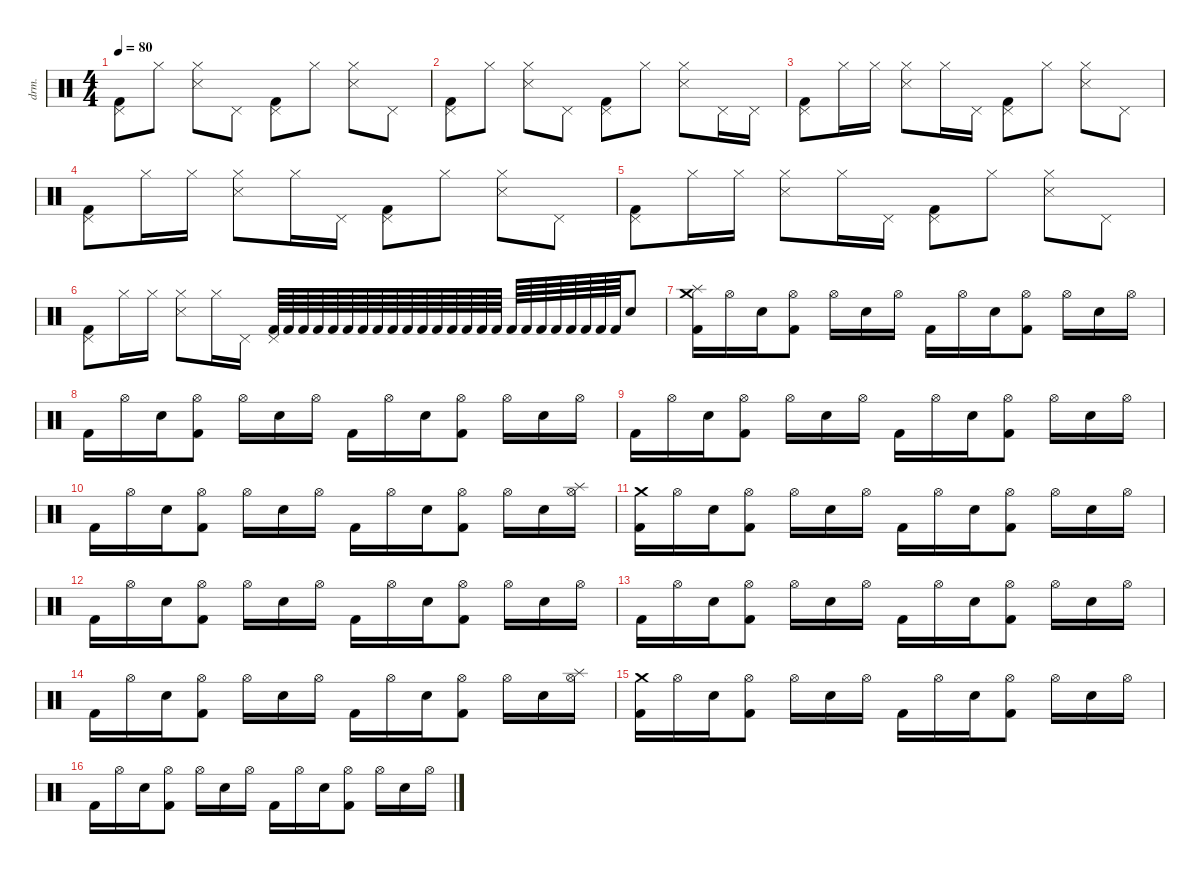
\defaultSystemsLayout 4
\hideDynamics
\bracketExtendMode nobrackets
\otherSystemsTrackNameOrientation horizontal
\track ("Percussions / Batterie" "drm.") {instrument percussion}
\staff {score}
\articulation defaults
\ts (4 4)
\tempo 80
\clef neutral
\ks c
("Pedal Hi-Hat (hit)" "Kick (hit) 2").8{dy f beam Down} "Hi-Hat (closed)".8{beam Down} ("Hi-Hat (closed)" "Snare (side stick) 3").8{beam Down} "Pedal Hi-Hat (hit)".8{beam Down} ("Pedal Hi-Hat (hit)" "Kick (hit) 2").8{beam Down} "Hi-Hat (closed)".8{beam Down} ("Hi-Hat (closed)" "Snare (side stick) 3").8{beam Down} "Pedal Hi-Hat (hit)".8{beam Down} |
("Pedal Hi-Hat (hit)" "Kick (hit) 2").8{beam Down} "Hi-Hat (closed)".8{beam Down} ("Hi-Hat (closed)" "Snare (side stick) 3").8{beam Down} "Pedal Hi-Hat (hit)".8{beam Down} ("Pedal Hi-Hat (hit)" "Kick (hit) 2").8{beam Down} "Hi-Hat (closed)".8{beam Down} ("Hi-Hat (closed)" "Snare (side stick) 3").8{beam Down} "Pedal Hi-Hat (hit)".16{beam Down} "Pedal Hi-Hat (hit)".16{beam Down} |
("Pedal Hi-Hat (hit)" "Kick (hit) 2").8{beam Down} "Hi-Hat (closed)".16{beam Down} "Hi-Hat (closed)".16{beam Down} ("Hi-Hat (closed)" "Snare (side stick) 3").8{beam Down} "Hi-Hat (closed)".16{beam Down} "Pedal Hi-Hat (hit)".16{beam Down} ("Pedal Hi-Hat (hit)" "Kick (hit) 2").8{beam Down} "Hi-Hat (closed)".8{beam Down} ("Hi-Hat (closed)" "Snare (side stick) 3").8{beam Down} "Pedal Hi-Hat (hit)".8{beam Down} |
("Pedal Hi-Hat (hit)" "Kick (hit) 2").8{beam Down} "Hi-Hat (closed)".16{beam Down} "Hi-Hat (closed)".16{beam Down} ("Hi-Hat (closed)" "Snare (side stick) 3").8{beam Down} "Hi-Hat (closed)".16{beam Down} "Pedal Hi-Hat (hit)".16{beam Down} ("Pedal Hi-Hat (hit)" "Kick (hit) 2").8{beam Down} "Hi-Hat (closed)".8{beam Down} ("Hi-Hat (closed)" "Snare (side stick) 3").8{beam Down} "Pedal Hi-Hat (hit)".8{beam Down} |
("Pedal Hi-Hat (hit)" "Kick (hit) 2").8{beam Down} "Hi-Hat (closed)".16{beam Down} "Hi-Hat (closed)".16{beam Down} ("Hi-Hat (closed)" "Snare (side stick) 3").8{beam Down} "Hi-Hat (closed)".16{beam Down} "Pedal Hi-Hat (hit)".16{beam Down} ("Pedal Hi-Hat (hit)" "Kick (hit) 2").8{beam Down} "Hi-Hat (closed)".8{beam Down} ("Hi-Hat (closed)" "Snare (side stick) 3").8{beam Down} "Pedal Hi-Hat (hit)".8{beam Down} |
("Pedal Hi-Hat (hit)" "Kick (hit) 2").8{beam Down} "Hi-Hat (closed)".16{beam Down} "Hi-Hat (closed)".16{beam Down} ("Hi-Hat (closed)" "Snare (side stick) 3").8{beam Down} "Hi-Hat (closed)".16{beam Down} "Pedal Hi-Hat (hit)".16{beam Down} ("Pedal Hi-Hat (hit)" "Kick (hit) 2").64{beam Up} "Kick (hit) 2".64{beam Up} "Kick (hit) 2".64{beam Up} "Kick (hit) 2".64{beam Up} "Kick (hit) 2".64{beam Up} "Kick (hit) 2".64{beam Up} "Kick (hit) 2".64{beam Up} "Kick (hit) 2".64{beam Up} "Kick (hit) 2".64{beam Up} "Kick (hit) 2".64{beam Up} "Kick (hit) 2".64{beam Up} "Kick (hit) 2".64{beam Up} "Kick (hit) 2".64{beam Up} "Kick (hit) 2".64{beam Up} "Kick (hit) 2".64{beam Up} "Kick (hit) 2".64{beam Up} "Kick (hit) 2".64{beam Up} "Kick (hit) 2".64{beam Up} "Kick (hit) 2".64{beam Up} "Kick (hit) 2".64{beam Up} "Kick (hit) 2".64{beam Up} "Kick (hit) 2".64{beam Up} "Kick (hit) 2".64{beam Up} "Kick (hit) 2".64{beam Up} "Snare (hit) 2".8{beam Up} |
("Splash (hit)" "Crash medium (hit)" "Kick (hit) 2").16{beam Down} "Hi-Hat (open)".16{beam Down} "Snare (hit) 2".16{beam Down} ("Hi-Hat (open)" "Kick (hit) 2").8{beam Down} "Hi-Hat (open)".16{beam Down} "Snare (hit) 2".16{beam Down} "Hi-Hat (open)".16{beam Down} "Kick (hit) 2".16{beam Down} "Hi-Hat (open)".16{beam Down} "Snare (hit) 2".16{beam Down} ("Hi-Hat (open)" "Kick (hit) 2").8{beam Down} "Hi-Hat (open)".16{beam Down} "Snare (hit) 2".16{beam Down} "Hi-Hat (open)".16{beam Down} |
"Kick (hit) 2".16{beam Down} "Hi-Hat (open)".16{beam Down} "Snare (hit) 2".16{beam Down} ("Hi-Hat (open)" "Kick (hit) 2").8{beam Down} "Hi-Hat (open)".16{beam Down} "Snare (hit) 2".16{beam Down} "Hi-Hat (open)".16{beam Down} "Kick (hit) 2".16{beam Down} "Hi-Hat (open)".16{beam Down} "Snare (hit) 2".16{beam Down} ("Hi-Hat (open)" "Kick (hit) 2").8{beam Down} "Hi-Hat (open)".16{beam Down} "Snare (hit) 2".16{beam Down} "Hi-Hat (open)".16{beam Down} |
"Kick (hit) 2".16{beam Down} "Hi-Hat (open)".16{beam Down} "Snare (hit) 2".16{beam Down} ("Hi-Hat (open)" "Kick (hit) 2").8{beam Down} "Hi-Hat (open)".16{beam Down} "Snare (hit) 2".16{beam Down} "Hi-Hat (open)".16{beam Down} "Kick (hit) 2".16{beam Down} "Hi-Hat (open)".16{beam Down} "Snare (hit) 2".16{beam Down} ("Hi-Hat (open)" "Kick (hit) 2").8{beam Down} "Hi-Hat (open)".16{beam Down} "Snare (hit) 2".16{beam Down} "Hi-Hat (open)".16{beam Down} |
"Kick (hit) 2".16{beam Down} "Hi-Hat (open)".16{beam Down} "Snare (hit) 2".16{beam Down} ("Hi-Hat (open)" "Kick (hit) 2").8{beam Down} "Hi-Hat (open)".16{beam Down} "Snare (hit) 2".16{beam Down} "Hi-Hat (open)".16{beam Down} "Kick (hit) 2".16{beam Down} "Hi-Hat (open)".16{beam Down} "Snare (hit) 2".16{beam Down} ("Hi-Hat (open)" "Kick (hit) 2").8{beam Down} "Hi-Hat (open)".16{beam Down} "Snare (hit) 2".16{beam Down} ("Splash (hit)" "Hi-Hat (open)").16{beam Down} |
("Crash medium (hit)" "Kick (hit) 2").16{beam Down} "Hi-Hat (open)".16{beam Down} "Snare (hit) 2".16{beam Down} ("Hi-Hat (open)" "Kick (hit) 2").8{beam Down} "Hi-Hat (open)".16{beam Down} "Snare (hit) 2".16{beam Down} "Hi-Hat (open)".16{beam Down} "Kick (hit) 2".16{beam Down} "Hi-Hat (open)".16{beam Down} "Snare (hit) 2".16{beam Down} ("Hi-Hat (open)" "Kick (hit) 2").8{beam Down} "Hi-Hat (open)".16{beam Down} "Snare (hit) 2".16{beam Down} "Hi-Hat (open)".16{beam Down} |
"Kick (hit) 2".16{beam Down} "Hi-Hat (open)".16{beam Down} "Snare (hit) 2".16{beam Down} ("Hi-Hat (open)" "Kick (hit) 2").8{beam Down} "Hi-Hat (open)".16{beam Down} "Snare (hit) 2".16{beam Down} "Hi-Hat (open)".16{beam Down} "Kick (hit) 2".16{beam Down} "Hi-Hat (open)".16{beam Down} "Snare (hit) 2".16{beam Down} ("Hi-Hat (open)" "Kick (hit) 2").8{beam Down} "Hi-Hat (open)".16{beam Down} "Snare (hit) 2".16{beam Down} "Hi-Hat (open)".16{beam Down} |
"Kick (hit) 2".16{beam Down} "Hi-Hat (open)".16{beam Down} "Snare (hit) 2".16{beam Down} ("Hi-Hat (open)" "Kick (hit) 2").8{beam Down} "Hi-Hat (open)".16{beam Down} "Snare (hit) 2".16{beam Down} "Hi-Hat (open)".16{beam Down} "Kick (hit) 2".16{beam Down} "Hi-Hat (open)".16{beam Down} "Snare (hit) 2".16{beam Down} ("Hi-Hat (open)" "Kick (hit) 2").8{beam Down} "Hi-Hat (open)".16{beam Down} "Snare (hit) 2".16{beam Down} "Hi-Hat (open)".16{beam Down} |
"Kick (hit) 2".16{beam Down} "Hi-Hat (open)".16{beam Down} "Snare (hit) 2".16{beam Down} ("Hi-Hat (open)" "Kick (hit) 2").8{beam Down} "Hi-Hat (open)".16{beam Down} "Snare (hit) 2".16{beam Down} "Hi-Hat (open)".16{beam Down} "Kick (hit) 2".16{beam Down} "Hi-Hat (open)".16{beam Down} "Snare (hit) 2".16{beam Down} ("Hi-Hat (open)" "Kick (hit) 2").8{beam Down} "Hi-Hat (open)".16{beam Down} "Snare (hit) 2".16{beam Down} ("Splash (hit)" "Hi-Hat (open)").16{beam Down} |
("Crash medium (hit)" "Kick (hit) 2").16{beam Down} "Hi-Hat (open)".16{beam Down} "Snare (hit) 2".16{beam Down} ("Hi-Hat (open)" "Kick (hit) 2").8{beam Down} "Hi-Hat (open)".16{beam Down} "Snare (hit) 2".16{beam Down} "Hi-Hat (open)".16{beam Down} "Kick (hit) 2".16{beam Down} "Hi-Hat (open)".16{beam Down} "Snare (hit) 2".16{beam Down} ("Hi-Hat (open)" "Kick (hit) 2").8{beam Down} "Hi-Hat (open)".16{beam Down} "Snare (hit) 2".16{beam Down} "Hi-Hat (open)".16{beam Down} |
"Kick (hit) 2".16{beam Down} "Hi-Hat (open)".16{beam Down} "Snare (hit) 2".16{beam Down} ("Hi-Hat (open)" "Kick (hit) 2").8{beam Down} "Hi-Hat (open)".16{beam Down} "Snare (hit) 2".16{beam Down} "Hi-Hat (open)".16{beam Down} "Kick (hit) 2".16{beam Down} "Hi-Hat (open)".16{beam Down} "Snare (hit) 2".16{beam Down} ("Hi-Hat (open)" "Kick (hit) 2").8{beam Down} "Hi-Hat (open)".16{beam Down} "Snare (hit) 2".16{beam Down} "Hi-Hat (open)".16{beam Down}
